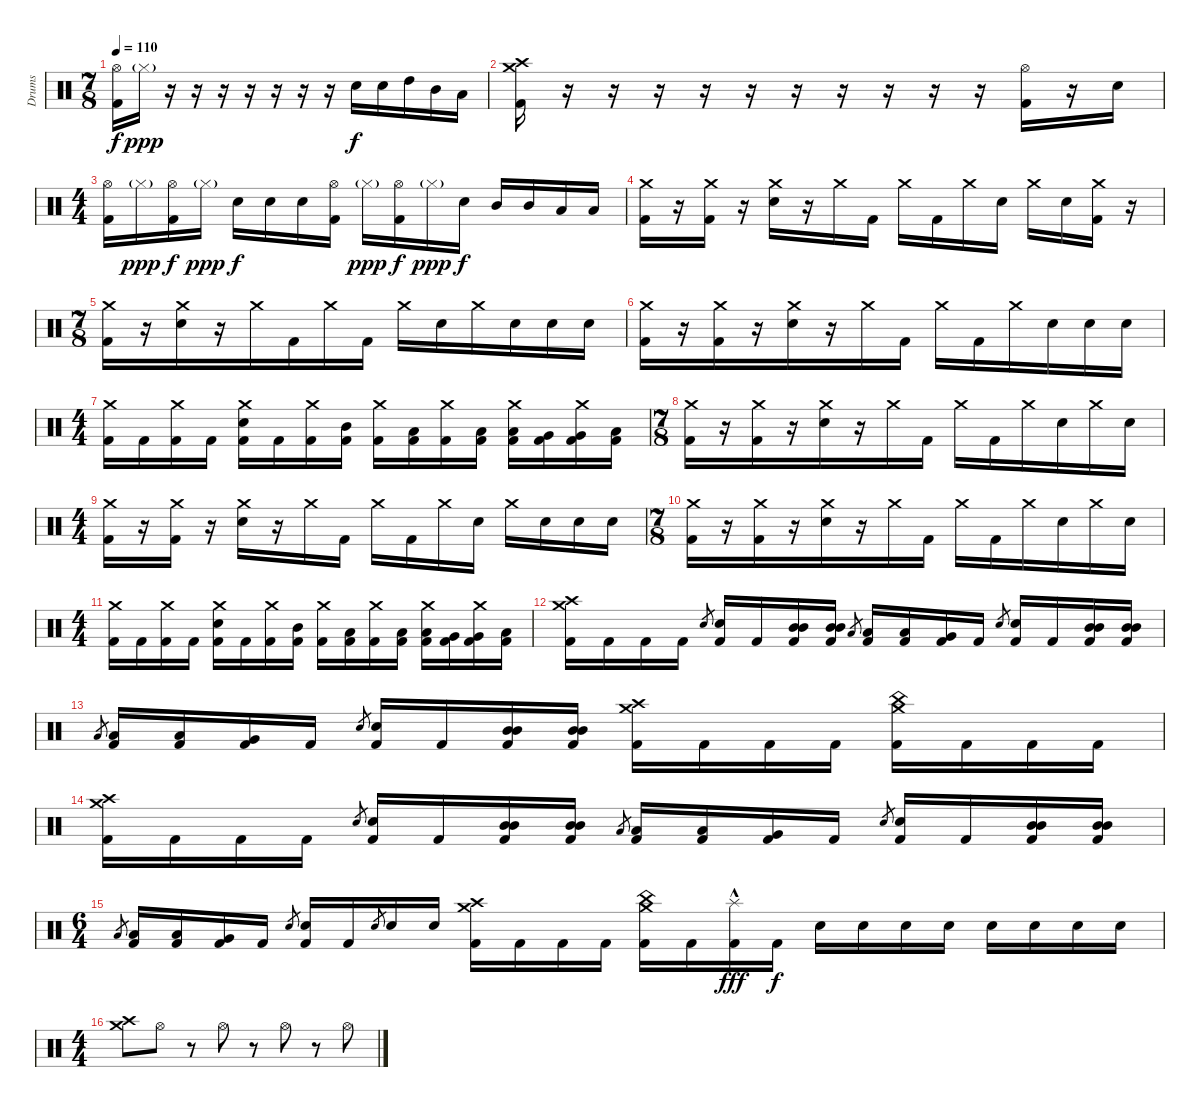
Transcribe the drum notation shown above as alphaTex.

\track ("Drums" "Drums") {instrument percussion}
\staff {score}
\articulation defaults
\ts (7 8)
\tempo 110
\clef neutral
\ks c
("Hi-Hat (open)" "Kick (hit) 2").16{dy f} "Hi-Hat (closed)"{g}.16{dy ppp} r.16 r.16 r.16 r.16 r.16 r.16 r.16 "Electric Snare (hit)".16{dy f} "Electric Snare (hit)".16 "High Tom (hit)".16 "Mid Tom (hit)".16 "Low Tom (hit)".16 |
("Crash medium (hit)" "Crash high (hit)" "Kick (hit) 2").16 r.16 r.16 r.16 r.16 r.16 r.16 r.16 r.16 r.16 r.16 ("Hi-Hat (open)" "Kick (hit) 2").16 r.16 "Electric Snare (hit)".16 |
\ts (4 4)
("Hi-Hat (open)" "Kick (hit) 2").16 "Hi-Hat (closed)"{g}.16{dy ppp} ("Hi-Hat (open)" "Kick (hit) 2").16{dy f} "Hi-Hat (closed)"{g}.16{dy ppp} "Electric Snare (hit)".16{dy f} "Electric Snare (hit)".16 "Electric Snare (hit)".16 ("Hi-Hat (open)" "Kick (hit) 2").16 "Hi-Hat (closed)"{g}.16{dy ppp} ("Hi-Hat (open)" "Kick (hit) 2").16{dy f} "Hi-Hat (closed)"{g}.16{dy ppp} "Electric Snare (hit)".16{dy f} "Mid Tom (hit)".16 "Mid Tom (hit)".16 "Low Tom (hit)".16 "Low Tom (hit)".16 |
("Crash medium (hit)" "Kick (hit) 2").16 r.16 ("Crash medium (hit)" "Kick (hit) 2").16 r.16 ("Crash medium (hit)" "Electric Snare (hit)").16 r.16 "Crash medium (hit)".16 "Kick (hit) 2".16 "Crash medium (hit)".16 "Kick (hit) 2".16 "Crash medium (hit)".16 "Electric Snare (hit)".16 "Crash medium (hit)".16 "Electric Snare (hit)".16 ("Crash medium (hit)" "Kick (hit) 2").16 r.16 |
\ts (7 8)
("Crash medium (hit)" "Kick (hit) 2").16 r.16 ("Crash medium (hit)" "Electric Snare (hit)").16 r.16 "Crash medium (hit)".16 "Kick (hit) 2".16 "Crash medium (hit)".16 "Kick (hit) 2".16 "Crash medium (hit)".16 "Electric Snare (hit)".16 "Crash medium (hit)".16 "Electric Snare (hit)".16 "Electric Snare (hit)".16 "Electric Snare (hit)".16 |
("Crash medium (hit)" "Kick (hit) 2").16 r.16 ("Crash medium (hit)" "Kick (hit) 2").16 r.16 ("Crash medium (hit)" "Electric Snare (hit)").16 r.16 "Crash medium (hit)".16 "Kick (hit) 2".16 "Crash medium (hit)".16 "Kick (hit) 2".16 "Crash medium (hit)".16 "Electric Snare (hit)".16 "Electric Snare (hit)".16 "Electric Snare (hit)".16 |
\ts (4 4)
("Crash medium (hit)" "Kick (hit) 2").16 "Kick (hit) 2".16 ("Crash medium (hit)" "Kick (hit) 2").16 "Kick (hit) 2".16 ("Crash medium (hit)" "Electric Snare (hit)" "Kick (hit) 2").16 "Kick (hit) 2".16 ("Crash medium (hit)" "Kick (hit) 2").16 ("Mid Tom (hit)" "Kick (hit) 2").16 ("Crash medium (hit)" "Kick (hit) 2").16 ("Low Tom (hit)" "Kick (hit) 2").16 ("Crash medium (hit)" "Kick (hit) 2").16 ("Low Tom (hit)" "Kick (hit) 2").16 ("Crash medium (hit)" "Low Tom (hit)" "Kick (hit) 2").16 ("Very Low Tom (hit)" "Kick (hit) 2").16 ("Crash medium (hit)" "Very Low Tom (hit)" "Kick (hit) 2").16 ("Low Floor Tom (hit)" "Kick (hit) 2").16 |
\ts (7 8)
("Crash medium (hit)" "Kick (hit) 2").16 r.16 ("Crash medium (hit)" "Kick (hit) 2").16 r.16 ("Crash medium (hit)" "Electric Snare (hit)").16 r.16 "Crash medium (hit)".16 "Kick (hit) 2".16 "Crash medium (hit)".16 "Kick (hit) 2".16 "Crash medium (hit)".16 "Electric Snare (hit)".16 "Crash medium (hit)".16 "Electric Snare (hit)".16 |
\ts (4 4)
("Crash medium (hit)" "Kick (hit) 2").16 r.16 ("Crash medium (hit)" "Kick (hit) 2").16 r.16 ("Crash medium (hit)" "Electric Snare (hit)").16 r.16 "Crash medium (hit)".16 "Kick (hit) 2".16 "Crash medium (hit)".16 "Kick (hit) 2".16 "Crash medium (hit)".16 "Electric Snare (hit)".16 "Crash medium (hit)".16 "Electric Snare (hit)".16 "Electric Snare (hit)".16 "Electric Snare (hit)".16 |
\ts (7 8)
("Crash medium (hit)" "Kick (hit) 2").16 r.16 ("Crash medium (hit)" "Kick (hit) 2").16 r.16 ("Crash medium (hit)" "Electric Snare (hit)").16 r.16 "Crash medium (hit)".16 "Kick (hit) 2".16 "Crash medium (hit)".16 "Kick (hit) 2".16 "Crash medium (hit)".16 "Electric Snare (hit)".16 "Crash medium (hit)".16 "Electric Snare (hit)".16 |
\ts (4 4)
("Crash medium (hit)" "Kick (hit) 2").16 "Kick (hit) 2".16 ("Crash medium (hit)" "Kick (hit) 2").16 "Kick (hit) 2".16 ("Crash medium (hit)" "Electric Snare (hit)" "Kick (hit) 2").16 "Kick (hit) 2".16 ("Crash medium (hit)" "Kick (hit) 2").16 ("Mid Tom (hit)" "Kick (hit) 2").16 ("Crash medium (hit)" "Kick (hit) 2").16 ("Low Tom (hit)" "Kick (hit) 2").16 ("Crash medium (hit)" "Kick (hit) 2").16 ("Low Tom (hit)" "Kick (hit) 2").16 ("Crash medium (hit)" "Low Tom (hit)" "Kick (hit) 2").16 ("Very Low Tom (hit)" "Kick (hit) 2").16 ("Crash medium (hit)" "Very Low Tom (hit)" "Kick (hit) 2").16 ("Low Floor Tom (hit)" "Kick (hit) 2").16 |
("Crash high (hit)" "Crash medium (hit)" "Kick (hit) 2").16 "Kick (hit) 2".16 "Kick (hit) 2".16 "Kick (hit) 2".16 "Electric Snare (hit)".8{gr} ("Electric Snare (hit)" "Kick (hit) 2").16 "Kick (hit) 2".16 ("Mid Tom (hit)" "Mid Tom (hit)" "Kick (hit) 2").16 ("Mid Tom (hit)" "Mid Tom (hit)" "Kick (hit) 2").16 "Low Tom (hit)".8{gr} ("Low Tom (hit)" "Kick (hit) 2").16 ("Low Tom (hit)" "Kick (hit) 2").16 ("Very Low Tom (hit)" "Kick (hit) 2").16 "Kick (hit) 2".16 "Electric Snare (hit)".8{gr} ("Electric Snare (hit)" "Kick (hit) 2").16 "Kick (hit) 2".16 ("Mid Tom (hit)" "Mid Tom (hit)" "Kick (hit) 2").16 ("Mid Tom (hit)" "Mid Tom (hit)" "Kick (hit) 2").16 |
"Low Tom (hit)".8{gr} ("Low Tom (hit)" "Kick (hit) 2").16 ("Low Tom (hit)" "Kick (hit) 2").16 ("Very Low Tom (hit)" "Kick (hit) 2").16 "Kick (hit) 2".16 "Electric Snare (hit)".8{gr} ("Electric Snare (hit)" "Kick (hit) 2").16 "Kick (hit) 2".16 ("Mid Tom (hit)" "Mid Tom (hit)" "Kick (hit) 2").16 ("Mid Tom (hit)" "Mid Tom (hit)" "Kick (hit) 2").16 ("Crash high (hit)" "Crash medium (hit)" "Kick (hit) 2").16 "Kick (hit) 2".16 "Kick (hit) 2".16 "Kick (hit) 2".16 ("Crash medium (hit)" "China (hit)" "Kick (hit) 2").16 "Kick (hit) 2".16 "Kick (hit) 2".16 "Kick (hit) 2".16 |
("Crash high (hit)" "Crash medium (hit)" "Kick (hit) 2").16 "Kick (hit) 2".16 "Kick (hit) 2".16 "Kick (hit) 2".16 "Electric Snare (hit)".8{gr} ("Electric Snare (hit)" "Kick (hit) 2").16 "Kick (hit) 2".16 ("Mid Tom (hit)" "Mid Tom (hit)" "Kick (hit) 2").16 ("Mid Tom (hit)" "Mid Tom (hit)" "Kick (hit) 2").16 "Low Tom (hit)".8{gr} ("Low Tom (hit)" "Kick (hit) 2").16 ("Low Tom (hit)" "Kick (hit) 2").16 ("Very Low Tom (hit)" "Kick (hit) 2").16 "Kick (hit) 2".16 "Electric Snare (hit)".8{gr} ("Electric Snare (hit)" "Kick (hit) 2").16 "Kick (hit) 2".16 ("Mid Tom (hit)" "Mid Tom (hit)" "Kick (hit) 2").16 ("Mid Tom (hit)" "Mid Tom (hit)" "Kick (hit) 2").16 |
\ts (6 4)
"Low Tom (hit)".8{gr} ("Low Tom (hit)" "Kick (hit) 2").16 ("Low Tom (hit)" "Kick (hit) 2").16 ("Very Low Tom (hit)" "Kick (hit) 2").16 "Kick (hit) 2".16 "Electric Snare (hit)".8{gr} ("Electric Snare (hit)" "Kick (hit) 2").16 "Kick (hit) 2".16 "Electric Snare (hit)".8{gr} "Electric Snare (hit)".16 "Electric Snare (hit)".16 ("Crash high (hit)" "Crash medium (hit)" "Kick (hit) 2").16 "Kick (hit) 2".16 "Kick (hit) 2".16 "Kick (hit) 2".16 ("Crash medium (hit)" "China (hit)" "Kick (hit) 2").16 "Kick (hit) 2".16 ("Splash (hit)"{hac} "Kick (hit) 2").16{dy fff} "Kick (hit) 2".16{dy f} "Electric Snare (hit)".16 "Electric Snare (hit)".16 "Electric Snare (hit)".16 "Electric Snare (hit)".16 "Electric Snare (hit)".16 "Electric Snare (hit)".16 "Electric Snare (hit)".16 "Electric Snare (hit)".16 |
\ts (4 4)
("Crash high (hit)" "Crash medium (hit)").8 "Hi-Hat (open)".8 r.8 "Hi-Hat (open)".8 r.8 "Hi-Hat (open)".8 r.8 "Hi-Hat (open)".8
